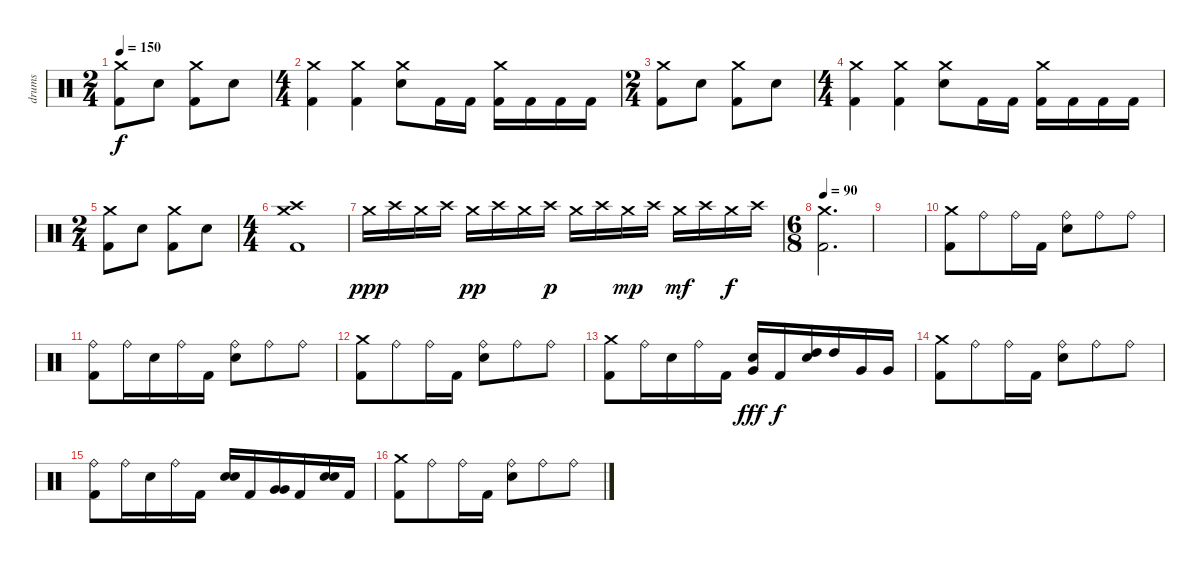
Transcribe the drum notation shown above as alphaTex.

\track ("drums" "drums") {instrument percussion}
\staff {score}
\articulation defaults
\ts (2 4)
\tempo 150
\clef neutral
\ks c
("Crash medium (hit)" "Kick (hit) 2").8{dy f} "Electric Snare (hit)".8 ("Crash medium (hit)" "Kick (hit) 2").8 "Electric Snare (hit)".8 |
\ts (4 4)
("Crash medium (hit)" "Kick (hit) 2").4 ("Crash medium (hit)" "Kick (hit) 2").4 ("Crash medium (hit)" "Electric Snare (hit)").8 "Kick (hit) 2".16 "Kick (hit) 2".16 ("Crash medium (hit)" "Kick (hit) 2").16 "Kick (hit) 2".16 "Kick (hit) 2".16 "Kick (hit) 2".16 |
\ts (2 4)
("Crash medium (hit)" "Kick (hit) 2").8 "Electric Snare (hit)".8 ("Crash medium (hit)" "Kick (hit) 2").8 "Electric Snare (hit)".8 |
\ts (4 4)
("Crash medium (hit)" "Kick (hit) 2").4 ("Crash medium (hit)" "Kick (hit) 2").4 ("Crash medium (hit)" "Electric Snare (hit)").8 "Kick (hit) 2".16 "Kick (hit) 2".16 ("Crash medium (hit)" "Kick (hit) 2").16 "Kick (hit) 2".16 "Kick (hit) 2".16 "Kick (hit) 2".16 |
\ts (2 4)
("Crash medium (hit)" "Kick (hit) 2").8 "Electric Snare (hit)".8 ("Crash medium (hit)" "Kick (hit) 2").8 "Electric Snare (hit)".8 |
\ts (4 4)
("Crash medium (hit)" "Crash high (hit)" "Kick (hit) 2").1 |
"Crash medium (hit)".16{dy ppp} "Crash high (hit)".16 "Crash medium (hit)".16 "Crash high (hit)".16 "Crash medium (hit)".16{dy pp} "Crash high (hit)".16 "Crash medium (hit)".16 "Crash high (hit)".16{dy p} "Crash medium (hit)".16 "Crash high (hit)".16 "Crash medium (hit)".16{dy mp} "Crash high (hit)".16 "Crash medium (hit)".16{dy mf} "Crash high (hit)".16 "Crash medium (hit)".16{dy f} "Crash high (hit)".16 |
\ts (6 8)
\tempo 90
("Crash medium (hit)" "Kick (hit) 2").2{d} |
|
("Crash medium (hit)" "Kick (hit) 2").8 "Ride (bell)".8 "Ride (bell)".16 "Kick (hit) 2".16 ("Ride (bell)" "Electric Snare (hit)").8 "Ride (bell)".8 "Ride (bell)".8 |
("Ride (bell)" "Kick (hit) 2").8 "Ride (bell)".16 "Electric Snare (hit)".16 "Ride (bell)".16 "Kick (hit) 2".16 ("Ride (bell)" "Electric Snare (hit)").8 "Ride (bell)".8 "Ride (bell)".8 |
("Crash medium (hit)" "Kick (hit) 2").8 "Ride (bell)".8 "Ride (bell)".16 "Kick (hit) 2".16 ("Ride (bell)" "Electric Snare (hit)").8 "Ride (bell)".8 "Ride (bell)".8 |
("Crash medium (hit)" "Kick (hit) 2").8 "Ride (bell)".16 "Electric Snare (hit)".16 "Ride (bell)".16 "Kick (hit) 2".16 ("Electric Snare (hit)" "Very Low Tom (hit)").16{dy fff} "Kick (hit) 2".16{dy f} ("High Tom (hit)" "Electric Snare (hit)").16 "High Tom (hit)".16 "Very Low Tom (hit)".16 "Very Low Tom (hit)".16 |
("Crash medium (hit)" "Kick (hit) 2").8 "Ride (bell)".8 "Ride (bell)".16 "Kick (hit) 2".16 ("Ride (bell)" "Electric Snare (hit)").8 "Ride (bell)".8 "Ride (bell)".8 |
("Ride (bell)" "Kick (hit) 2").8 "Ride (bell)".16 "Electric Snare (hit)".16 "Ride (bell)".16 "Kick (hit) 2".16 ("Electric Snare (hit)" "Electric Snare (hit)").16 "Kick (hit) 2".16 ("Very Low Tom (hit)" "Very Low Tom (hit)").16 "Kick (hit) 2".16 ("Electric Snare (hit)" "Electric Snare (hit)").16 "Kick (hit) 2".16 |
("Crash medium (hit)" "Kick (hit) 2").8 "Ride (bell)".8 "Ride (bell)".16 "Kick (hit) 2".16 ("Ride (bell)" "Electric Snare (hit)").8 "Ride (bell)".8 "Ride (bell)".8
